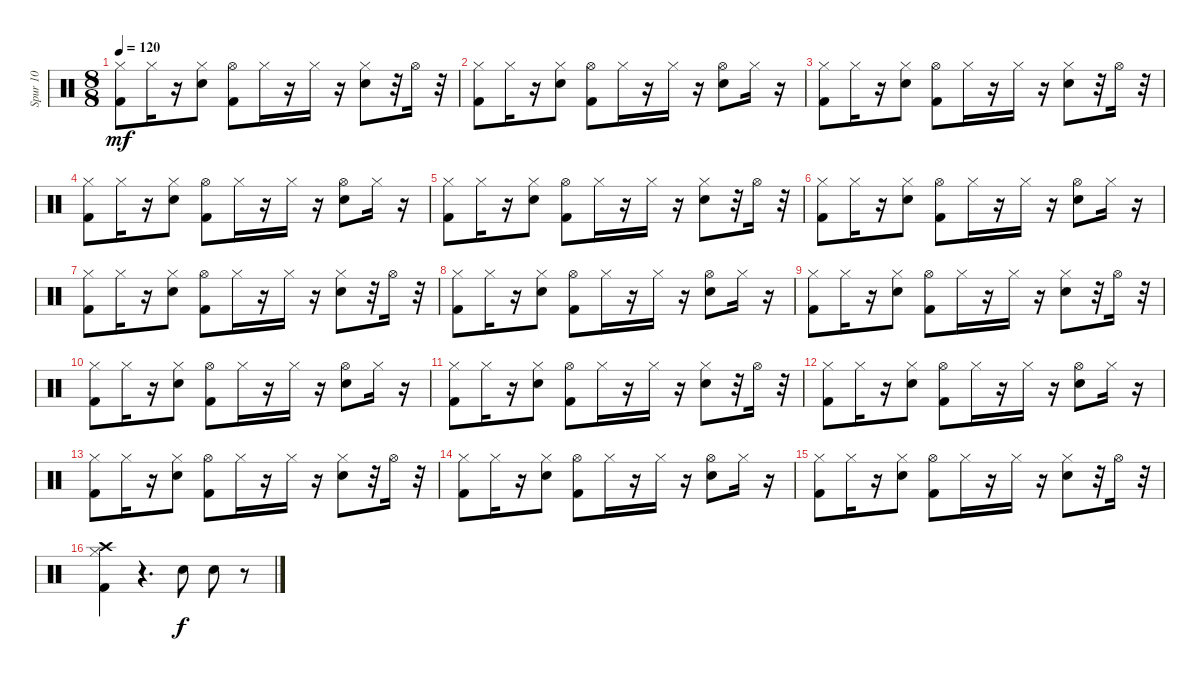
\track ("Spur 10" "Spur 10") {instrument percussion}
\staff {score}
\articulation defaults
\ts (8 8)
\tempo 120
\clef neutral
\ks c
("Hi-Hat (closed)" "Kick (hit) 2").8{dy mf} "Hi-Hat (closed)".16 r.16 ("Hi-Hat (closed)" "Metronome (bell)").8 ("Kick (hit) 2" "Hi-Hat (open)").8 "Hi-Hat (closed)".16 r.16 "Hi-Hat (closed)".16 r.16 ("Hi-Hat (closed)" "Metronome (bell)").8 r.32 "Hi-Hat (open)".16 r.32 |
("Hi-Hat (closed)" "Kick (hit) 2").8 "Hi-Hat (closed)".16 r.16 ("Hi-Hat (closed)" "Metronome (bell)").8 ("Kick (hit) 2" "Hi-Hat (open)").8 "Hi-Hat (closed)".16 r.16 "Hi-Hat (closed)".16 r.16 ("Hi-Hat (open)" "Metronome (bell)").8 "Hi-Hat (closed)".16 r.16 |
("Hi-Hat (closed)" "Kick (hit) 2").8 "Hi-Hat (closed)".16 r.16 ("Hi-Hat (closed)" "Metronome (bell)").8 ("Kick (hit) 2" "Hi-Hat (open)").8 "Hi-Hat (closed)".16 r.16 "Hi-Hat (closed)".16 r.16 ("Hi-Hat (closed)" "Metronome (bell)").8 r.32 "Hi-Hat (open)".16 r.32 |
("Hi-Hat (closed)" "Kick (hit) 2").8 "Hi-Hat (closed)".16 r.16 ("Hi-Hat (closed)" "Metronome (bell)").8 ("Kick (hit) 2" "Hi-Hat (open)").8 "Hi-Hat (closed)".16 r.16 "Hi-Hat (closed)".16 r.16 ("Hi-Hat (open)" "Metronome (bell)").8 "Hi-Hat (closed)".16 r.16 |
("Hi-Hat (closed)" "Kick (hit) 2").8 "Hi-Hat (closed)".16 r.16 ("Hi-Hat (closed)" "Metronome (bell)").8 ("Kick (hit) 2" "Hi-Hat (open)").8 "Hi-Hat (closed)".16 r.16 "Hi-Hat (closed)".16 r.16 ("Hi-Hat (closed)" "Metronome (bell)").8 r.32 "Hi-Hat (open)".16 r.32 |
("Hi-Hat (closed)" "Kick (hit) 2").8 "Hi-Hat (closed)".16 r.16 ("Hi-Hat (closed)" "Metronome (bell)").8 ("Kick (hit) 2" "Hi-Hat (open)").8 "Hi-Hat (closed)".16 r.16 "Hi-Hat (closed)".16 r.16 ("Hi-Hat (open)" "Metronome (bell)").8 "Hi-Hat (closed)".16 r.16 |
("Hi-Hat (closed)" "Kick (hit) 2").8 "Hi-Hat (closed)".16 r.16 ("Hi-Hat (closed)" "Metronome (bell)").8 ("Kick (hit) 2" "Hi-Hat (open)").8 "Hi-Hat (closed)".16 r.16 "Hi-Hat (closed)".16 r.16 ("Hi-Hat (closed)" "Metronome (bell)").8 r.32 "Hi-Hat (open)".16 r.32 |
("Hi-Hat (closed)" "Kick (hit) 2").8 "Hi-Hat (closed)".16 r.16 ("Hi-Hat (closed)" "Metronome (bell)").8 ("Kick (hit) 2" "Hi-Hat (open)").8 "Hi-Hat (closed)".16 r.16 "Hi-Hat (closed)".16 r.16 ("Hi-Hat (open)" "Metronome (bell)").8 "Hi-Hat (closed)".16 r.16 |
("Hi-Hat (closed)" "Kick (hit) 2").8 "Hi-Hat (closed)".16 r.16 ("Hi-Hat (closed)" "Metronome (bell)").8 ("Kick (hit) 2" "Hi-Hat (open)").8 "Hi-Hat (closed)".16 r.16 "Hi-Hat (closed)".16 r.16 ("Hi-Hat (closed)" "Metronome (bell)").8 r.32 "Hi-Hat (open)".16 r.32 |
("Hi-Hat (closed)" "Kick (hit) 2").8 "Hi-Hat (closed)".16 r.16 ("Hi-Hat (closed)" "Metronome (bell)").8 ("Kick (hit) 2" "Hi-Hat (open)").8 "Hi-Hat (closed)".16 r.16 "Hi-Hat (closed)".16 r.16 ("Hi-Hat (open)" "Metronome (bell)").8 "Hi-Hat (closed)".16 r.16 |
("Hi-Hat (closed)" "Kick (hit) 2").8 "Hi-Hat (closed)".16 r.16 ("Hi-Hat (closed)" "Metronome (bell)").8 ("Kick (hit) 2" "Hi-Hat (open)").8 "Hi-Hat (closed)".16 r.16 "Hi-Hat (closed)".16 r.16 ("Hi-Hat (closed)" "Metronome (bell)").8 r.32 "Hi-Hat (open)".16 r.32 |
("Hi-Hat (closed)" "Kick (hit) 2").8 "Hi-Hat (closed)".16 r.16 ("Hi-Hat (closed)" "Metronome (bell)").8 ("Kick (hit) 2" "Hi-Hat (open)").8 "Hi-Hat (closed)".16 r.16 "Hi-Hat (closed)".16 r.16 ("Hi-Hat (open)" "Metronome (bell)").8 "Hi-Hat (closed)".16 r.16 |
("Hi-Hat (closed)" "Kick (hit) 2").8 "Hi-Hat (closed)".16 r.16 ("Hi-Hat (closed)" "Metronome (bell)").8 ("Kick (hit) 2" "Hi-Hat (open)").8 "Hi-Hat (closed)".16 r.16 "Hi-Hat (closed)".16 r.16 ("Hi-Hat (closed)" "Metronome (bell)").8 r.32 "Hi-Hat (open)".16 r.32 |
("Hi-Hat (closed)" "Kick (hit) 2").8 "Hi-Hat (closed)".16 r.16 ("Hi-Hat (closed)" "Metronome (bell)").8 ("Kick (hit) 2" "Hi-Hat (open)").8 "Hi-Hat (closed)".16 r.16 "Hi-Hat (closed)".16 r.16 ("Hi-Hat (open)" "Metronome (bell)").8 "Hi-Hat (closed)".16 r.16 |
("Hi-Hat (closed)" "Kick (hit) 2").8 "Hi-Hat (closed)".16 r.16 ("Hi-Hat (closed)" "Metronome (bell)").8 ("Kick (hit) 2" "Hi-Hat (open)").8 "Hi-Hat (closed)".16 r.16 "Hi-Hat (closed)".16 r.16 ("Hi-Hat (closed)" "Metronome (bell)").8 r.32 "Hi-Hat (open)".16 r.32 |
("Hi-Hat (closed)" "Kick (hit) 2" "Crash high (hit)").4 r.4{d} "Metronome (bell)".8{dy f} "Metronome (bell)".8 r.8
